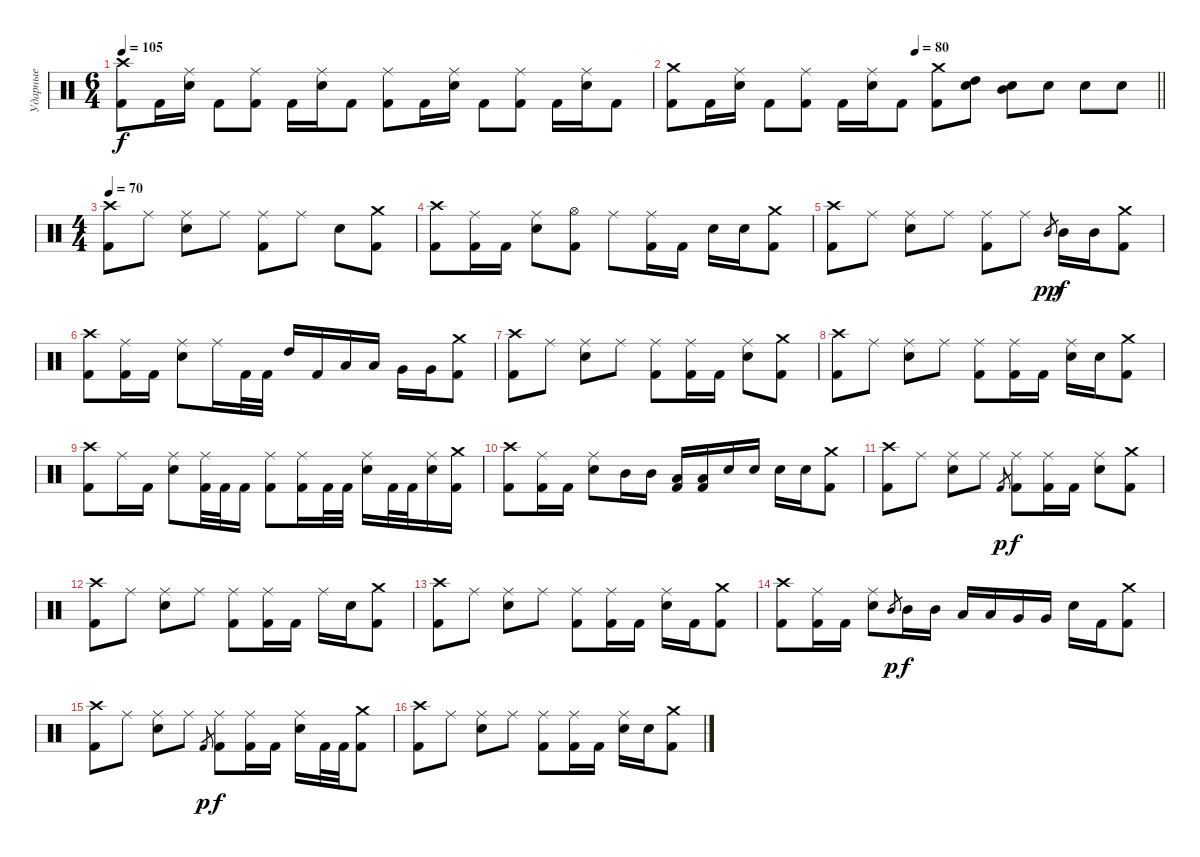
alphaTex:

\track ("Ударные" "Ударные") {instrument percussion}
\staff {score}
\articulation defaults
\ts (6 4)
\tempo 105
\clef neutral
\ks c
("Kick (hit) 2" "Crash high (hit)").8{dy f} "Kick (hit) 2".16 ("Electric Snare (hit)" "Ride (middle)").16 "Kick (hit) 2".8 ("Kick (hit) 2" "Ride (middle)").8 "Kick (hit) 2".16 ("Electric Snare (hit)" "Ride (middle)").16 "Kick (hit) 2".8 ("Kick (hit) 2" "Ride (middle)").8 "Kick (hit) 2".16 ("Electric Snare (hit)" "Ride (middle)").16 "Kick (hit) 2".8 ("Kick (hit) 2" "Ride (middle)").8 "Kick (hit) 2".16 ("Electric Snare (hit)" "Ride (middle)").16 "Kick (hit) 2".8 |
\tempo (80 0.5)
\barLineRight lightlight
("Kick (hit) 2" "Crash medium (hit)").8 "Kick (hit) 2".16 ("Electric Snare (hit)" "Ride (middle)").16 "Kick (hit) 2".8 ("Kick (hit) 2" "Ride (middle)").8 "Kick (hit) 2".16 ("Electric Snare (hit)" "Ride (middle)").16 "Kick (hit) 2".8 ("Kick (hit) 2" "Crash medium (hit)").8 ("Electric Snare (hit)" "High Tom (hit)").8 ("Electric Snare (hit)" "Mid Tom (hit)").8 "Electric Snare (hit)".8 "Electric Snare (hit)".8 "Electric Snare (hit)".8 |
\ts (4 4)
\section ("" "")
\tempo 70
("Kick (hit) 2" "Crash high (hit)").8 "Ride (middle)".8 ("Electric Snare (hit)" "Ride (middle)").8 "Ride (middle)".8 ("Kick (hit) 2" "Ride (middle)").8 "Ride (middle)".8 "Electric Snare (hit)".8 ("Kick (hit) 2" "Crash medium (hit)").8 |
("Kick (hit) 2" "Crash high (hit)").8 ("Kick (hit) 2" "Ride (middle)").16 "Kick (hit) 2".16 ("Electric Snare (hit)" "Ride (middle)").8 ("Kick (hit) 2" "Hi-Hat (open)").8 "Ride (middle)".8 ("Kick (hit) 2" "Ride (middle)").16 "Kick (hit) 2".16 "Electric Snare (hit)".16 "Electric Snare (hit)".16 ("Kick (hit) 2" "Crash medium (hit)").8 |
("Kick (hit) 2" "Crash high (hit)").8 "Ride (middle)".8 ("Ride (middle)" "Electric Snare (hit)").8 "Ride (middle)".8 ("Ride (middle)" "Kick (hit) 2").8 "Ride (middle)".8 "Mid Tom (hit)".8{gr dy pp} "Mid Tom (hit)".16{dy f} "Mid Tom (hit)".16 ("Kick (hit) 2" "Crash medium (hit)").8 |
("Kick (hit) 2" "Crash high (hit)").8 ("Ride (middle)" "Kick (hit) 2").16 "Kick (hit) 2".16 ("Electric Snare (hit)" "Ride (middle)").8 "Ride (middle)".16 "Kick (hit) 2".32 "Kick (hit) 2".32 "High Tom (hit)".16 "Kick (hit) 2".16 "Low Tom (hit)".16 "Low Tom (hit)".16 "Very Low Tom (hit)".16 "Very Low Tom (hit)".16 ("Kick (hit) 2" "Crash medium (hit)").8 |
("Kick (hit) 2" "Crash high (hit)").8 "Ride (middle)".8 ("Electric Snare (hit)" "Ride (middle)").8 "Ride (middle)".8 ("Kick (hit) 2" "Ride (middle)").8 ("Ride (middle)" "Kick (hit) 2").16 "Kick (hit) 2".16 ("Ride (middle)" "Electric Snare (hit)").8 ("Kick (hit) 2" "Crash medium (hit)").8 |
("Kick (hit) 2" "Crash high (hit)").8 "Ride (middle)".8 ("Electric Snare (hit)" "Ride (middle)").8 "Ride (middle)".8 ("Kick (hit) 2" "Ride (middle)").8 ("Ride (middle)" "Kick (hit) 2").16 "Kick (hit) 2".16 ("Ride (middle)" "Electric Snare (hit)").16 "Electric Snare (hit)".16 ("Kick (hit) 2" "Crash medium (hit)").8 |
("Kick (hit) 2" "Crash high (hit)").8 "Ride (middle)".16 "Kick (hit) 2".16 ("Ride (middle)" "Electric Snare (hit)").8 ("Kick (hit) 2" "Ride (middle)").32 "Kick (hit) 2".32 "Kick (hit) 2".16 ("Ride (middle)" "Kick (hit) 2").8 ("Ride (middle)" "Kick (hit) 2").16 "Kick (hit) 2".32 "Kick (hit) 2".32 ("Ride (middle)" "Electric Snare (hit)").16 "Kick (hit) 2".32 "Kick (hit) 2".32 ("Ride (middle)" "Electric Snare (hit)").16 ("Crash medium (hit)" "Kick (hit) 2").16 |
("Kick (hit) 2" "Crash high (hit)").8 ("Ride (middle)" "Kick (hit) 2").16 "Kick (hit) 2".16 ("Electric Snare (hit)" "Ride (middle)").8 "Mid Tom (hit)".16 "Mid Tom (hit)".16 ("Low Tom (hit)" "Kick (hit) 2").16 ("Low Tom (hit)" "Kick (hit) 2").16 "Electric Snare (hit)".16 "Electric Snare (hit)".16 "Electric Snare (hit)".16 "Electric Snare (hit)".16 ("Kick (hit) 2" "Crash medium (hit)").8 |
("Kick (hit) 2" "Crash high (hit)").8 "Ride (middle)".8 ("Electric Snare (hit)" "Ride (middle)").8 "Ride (middle)".8 "Kick (hit) 2".8{gr dy p} ("Kick (hit) 2" "Ride (middle)").8{dy f} ("Ride (middle)" "Kick (hit) 2").16 "Kick (hit) 2".16 ("Ride (middle)" "Electric Snare (hit)").8 ("Kick (hit) 2" "Crash medium (hit)").8 |
("Kick (hit) 2" "Crash high (hit)").8 "Ride (middle)".8 ("Electric Snare (hit)" "Ride (middle)").8 "Ride (middle)".8 ("Kick (hit) 2" "Ride (middle)").8 ("Ride (middle)" "Kick (hit) 2").16 "Kick (hit) 2".16 "Ride (middle)".16 "Electric Snare (hit)".16 ("Kick (hit) 2" "Crash medium (hit)").8 |
("Kick (hit) 2" "Crash high (hit)").8 "Ride (middle)".8 ("Ride (middle)" "Electric Snare (hit)").8 "Ride (middle)".8 ("Ride (middle)" "Kick (hit) 2").8 ("Ride (middle)" "Kick (hit) 2").16 "Kick (hit) 2".16 ("Ride (middle)" "Electric Snare (hit)").16 "Kick (hit) 2".16 ("Crash medium (hit)" "Kick (hit) 2").8 |
("Kick (hit) 2" "Crash high (hit)").8 ("Ride (middle)" "Kick (hit) 2").16 "Kick (hit) 2".16 ("Electric Snare (hit)" "Ride (middle)").8 "Mid Tom (hit)".8{gr dy p} "Mid Tom (hit)".16{dy f} "Mid Tom (hit)".16 "Low Tom (hit)".16 "Low Tom (hit)".16 "Very Low Tom (hit)".16 "Very Low Tom (hit)".16 "Electric Snare (hit)".16 "Kick (hit) 2".16 ("Kick (hit) 2" "Crash medium (hit)").8 |
("Kick (hit) 2" "Crash high (hit)").8 "Ride (middle)".8 ("Electric Snare (hit)" "Ride (middle)").8 "Ride (middle)".8 "Kick (hit) 2".8{gr dy p} ("Kick (hit) 2" "Ride (middle)").8{dy f} ("Ride (middle)" "Kick (hit) 2").16 "Kick (hit) 2".16 ("Ride (middle)" "Electric Snare (hit)").16 "Kick (hit) 2".32 "Kick (hit) 2".32 ("Kick (hit) 2" "Crash medium (hit)").8 |
("Kick (hit) 2" "Crash high (hit)").8 "Ride (middle)".8 ("Electric Snare (hit)" "Ride (middle)").8 "Ride (middle)".8 ("Kick (hit) 2" "Ride (middle)").8 ("Ride (middle)" "Kick (hit) 2").16 "Kick (hit) 2".16 ("Ride (middle)" "Electric Snare (hit)").16 "Electric Snare (hit)".16 ("Kick (hit) 2" "Crash medium (hit)").8
